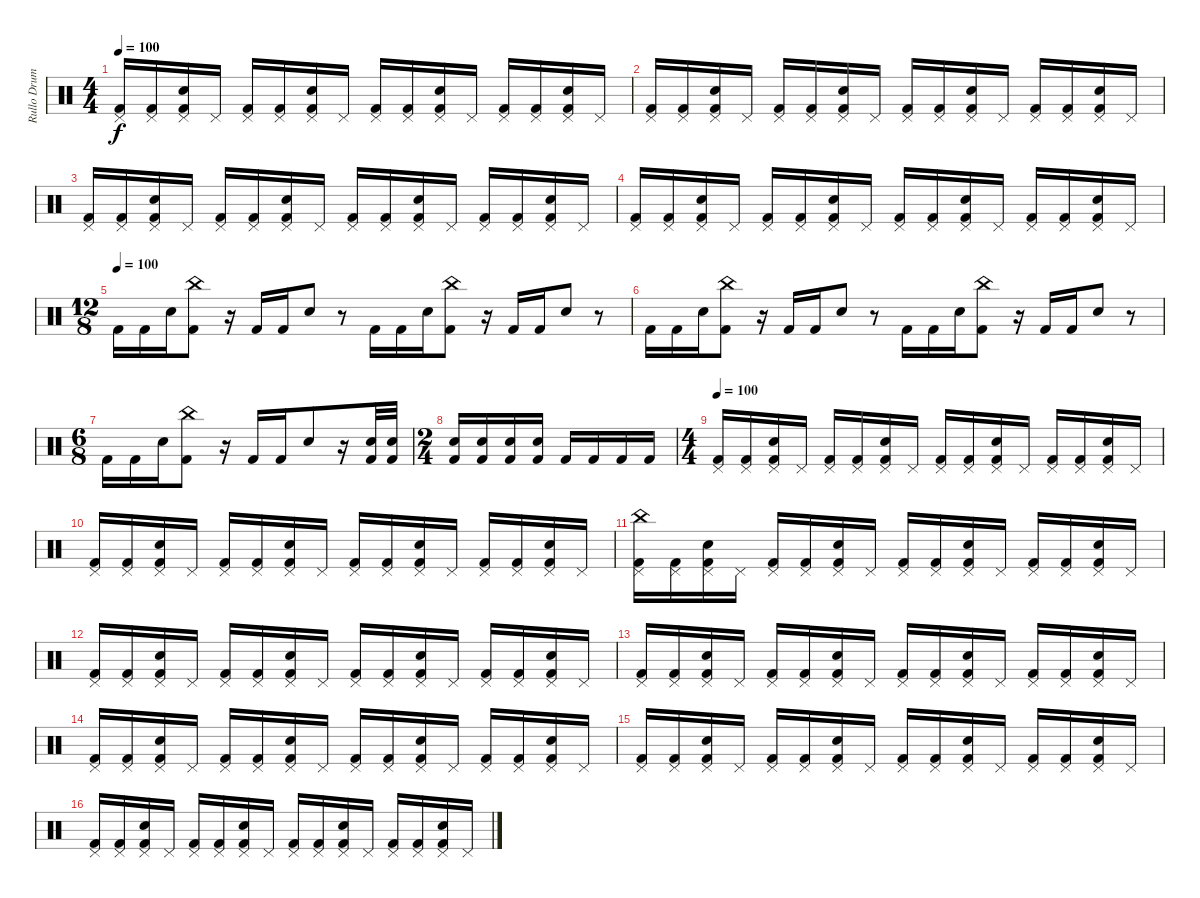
\track ("Rullo Drums" "Rullo Drum") {instrument percussion}
\staff {score}
\articulation defaults
\ts (4 4)
\tempo 100
\clef neutral
\ks c
("Kick (hit) 2" "Pedal Hi-Hat (hit)").16{dy f} ("Kick (hit) 2" "Pedal Hi-Hat (hit)").16 ("Kick (hit) 2" "Snare (hit) 2" "Pedal Hi-Hat (hit)").16 "Pedal Hi-Hat (hit)".16 ("Kick (hit) 2" "Pedal Hi-Hat (hit)").16 ("Kick (hit) 2" "Pedal Hi-Hat (hit)").16 ("Kick (hit) 2" "Snare (hit) 2" "Pedal Hi-Hat (hit)").16 "Pedal Hi-Hat (hit)".16 ("Kick (hit) 2" "Pedal Hi-Hat (hit)").16 ("Kick (hit) 2" "Pedal Hi-Hat (hit)").16 ("Kick (hit) 2" "Snare (hit) 2" "Pedal Hi-Hat (hit)").16 "Pedal Hi-Hat (hit)".16 ("Kick (hit) 2" "Pedal Hi-Hat (hit)").16 ("Kick (hit) 2" "Pedal Hi-Hat (hit)").16 ("Kick (hit) 2" "Snare (hit) 2" "Pedal Hi-Hat (hit)").16 "Pedal Hi-Hat (hit)".16 |
("Kick (hit) 2" "Pedal Hi-Hat (hit)").16 ("Kick (hit) 2" "Pedal Hi-Hat (hit)").16 ("Kick (hit) 2" "Snare (hit) 2" "Pedal Hi-Hat (hit)").16 "Pedal Hi-Hat (hit)".16 ("Kick (hit) 2" "Pedal Hi-Hat (hit)").16 ("Kick (hit) 2" "Pedal Hi-Hat (hit)").16 ("Kick (hit) 2" "Snare (hit) 2" "Pedal Hi-Hat (hit)").16 "Pedal Hi-Hat (hit)".16 ("Kick (hit) 2" "Pedal Hi-Hat (hit)").16 ("Kick (hit) 2" "Pedal Hi-Hat (hit)").16 ("Kick (hit) 2" "Snare (hit) 2" "Pedal Hi-Hat (hit)").16 "Pedal Hi-Hat (hit)".16 ("Kick (hit) 2" "Pedal Hi-Hat (hit)").16 ("Kick (hit) 2" "Pedal Hi-Hat (hit)").16 ("Kick (hit) 2" "Snare (hit) 2" "Pedal Hi-Hat (hit)").16 "Pedal Hi-Hat (hit)".16 |
("Kick (hit) 2" "Pedal Hi-Hat (hit)").16 ("Kick (hit) 2" "Pedal Hi-Hat (hit)").16 ("Kick (hit) 2" "Snare (hit) 2" "Pedal Hi-Hat (hit)").16 "Pedal Hi-Hat (hit)".16 ("Kick (hit) 2" "Pedal Hi-Hat (hit)").16 ("Kick (hit) 2" "Pedal Hi-Hat (hit)").16 ("Kick (hit) 2" "Snare (hit) 2" "Pedal Hi-Hat (hit)").16 "Pedal Hi-Hat (hit)".16 ("Kick (hit) 2" "Pedal Hi-Hat (hit)").16 ("Kick (hit) 2" "Pedal Hi-Hat (hit)").16 ("Kick (hit) 2" "Snare (hit) 2" "Pedal Hi-Hat (hit)").16 "Pedal Hi-Hat (hit)".16 ("Kick (hit) 2" "Pedal Hi-Hat (hit)").16 ("Kick (hit) 2" "Pedal Hi-Hat (hit)").16 ("Kick (hit) 2" "Snare (hit) 2" "Pedal Hi-Hat (hit)").16 "Pedal Hi-Hat (hit)".16 |
("Kick (hit) 2" "Pedal Hi-Hat (hit)").16 ("Kick (hit) 2" "Pedal Hi-Hat (hit)").16 ("Kick (hit) 2" "Snare (hit) 2" "Pedal Hi-Hat (hit)").16 "Pedal Hi-Hat (hit)".16 ("Kick (hit) 2" "Pedal Hi-Hat (hit)").16 ("Kick (hit) 2" "Pedal Hi-Hat (hit)").16 ("Kick (hit) 2" "Snare (hit) 2" "Pedal Hi-Hat (hit)").16 "Pedal Hi-Hat (hit)".16 ("Kick (hit) 2" "Pedal Hi-Hat (hit)").16 ("Kick (hit) 2" "Pedal Hi-Hat (hit)").16 ("Kick (hit) 2" "Snare (hit) 2" "Pedal Hi-Hat (hit)").16 "Pedal Hi-Hat (hit)".16 ("Kick (hit) 2" "Pedal Hi-Hat (hit)").16 ("Kick (hit) 2" "Pedal Hi-Hat (hit)").16 ("Kick (hit) 2" "Snare (hit) 2" "Pedal Hi-Hat (hit)").16 "Pedal Hi-Hat (hit)".16 |
\ts (12 8)
\tempo (100)
"Kick (hit) 2".16 "Kick (hit) 2".16 "Snare (hit) 2".16 ("Kick (hit) 2" "China (hit)").8 r.16 "Kick (hit) 2".16 "Kick (hit) 2".16 "Snare (hit) 2".8 r.8 "Kick (hit) 2".16 "Kick (hit) 2".16 "Snare (hit) 2".16 ("Kick (hit) 2" "China (hit)").8 r.16 "Kick (hit) 2".16 "Kick (hit) 2".16 "Snare (hit) 2".8 r.8 |
"Kick (hit) 2".16 "Kick (hit) 2".16 "Snare (hit) 2".16 ("Kick (hit) 2" "China (hit)").8 r.16 "Kick (hit) 2".16 "Kick (hit) 2".16 "Snare (hit) 2".8 r.8 "Kick (hit) 2".16 "Kick (hit) 2".16 "Snare (hit) 2".16 ("Kick (hit) 2" "China (hit)").8 r.16 "Kick (hit) 2".16 "Kick (hit) 2".16 "Snare (hit) 2".8 r.8 |
\ts (6 8)
"Kick (hit) 2".16 "Kick (hit) 2".16 "Snare (hit) 2".16 ("Kick (hit) 2" "China (hit)").8 r.16 "Kick (hit) 2".16 "Kick (hit) 2".16 "Snare (hit) 2".8 r.16 ("Kick (hit) 2" "Snare (hit) 2").32 ("Kick (hit) 2" "Snare (hit) 2").32 |
\ts (2 4)
("Kick (hit) 2" "Snare (hit) 2").16 ("Kick (hit) 2" "Snare (hit) 2").16 ("Kick (hit) 2" "Snare (hit) 2").16 ("Kick (hit) 2" "Snare (hit) 2").16 "Kick (hit) 2".16 "Kick (hit) 2".16 "Kick (hit) 2".16 "Kick (hit) 2".16 |
\ts (4 4)
\tempo 100
("Kick (hit) 2" "Pedal Hi-Hat (hit)").16 ("Kick (hit) 2" "Pedal Hi-Hat (hit)").16 ("Kick (hit) 2" "Snare (hit) 2" "Pedal Hi-Hat (hit)").16 "Pedal Hi-Hat (hit)".16 ("Kick (hit) 2" "Pedal Hi-Hat (hit)").16 ("Kick (hit) 2" "Pedal Hi-Hat (hit)").16 ("Kick (hit) 2" "Snare (hit) 2" "Pedal Hi-Hat (hit)").16 "Pedal Hi-Hat (hit)".16 ("Kick (hit) 2" "Pedal Hi-Hat (hit)").16 ("Kick (hit) 2" "Pedal Hi-Hat (hit)").16 ("Kick (hit) 2" "Snare (hit) 2" "Pedal Hi-Hat (hit)").16 "Pedal Hi-Hat (hit)".16 ("Kick (hit) 2" "Pedal Hi-Hat (hit)").16 ("Kick (hit) 2" "Pedal Hi-Hat (hit)").16 ("Kick (hit) 2" "Snare (hit) 2" "Pedal Hi-Hat (hit)").16 "Pedal Hi-Hat (hit)".16 |
("Kick (hit) 2" "Pedal Hi-Hat (hit)").16 ("Kick (hit) 2" "Pedal Hi-Hat (hit)").16 ("Kick (hit) 2" "Snare (hit) 2" "Pedal Hi-Hat (hit)").16 "Pedal Hi-Hat (hit)".16 ("Kick (hit) 2" "Pedal Hi-Hat (hit)").16 ("Kick (hit) 2" "Pedal Hi-Hat (hit)").16 ("Kick (hit) 2" "Snare (hit) 2" "Pedal Hi-Hat (hit)").16 "Pedal Hi-Hat (hit)".16 ("Kick (hit) 2" "Pedal Hi-Hat (hit)").16 ("Kick (hit) 2" "Pedal Hi-Hat (hit)").16 ("Kick (hit) 2" "Snare (hit) 2" "Pedal Hi-Hat (hit)").16 "Pedal Hi-Hat (hit)".16 ("Kick (hit) 2" "Pedal Hi-Hat (hit)").16 ("Kick (hit) 2" "Pedal Hi-Hat (hit)").16 ("Kick (hit) 2" "Snare (hit) 2" "Pedal Hi-Hat (hit)").16 "Pedal Hi-Hat (hit)".16 |
("Kick (hit) 2" "Pedal Hi-Hat (hit)" "China (hit)").16 ("Kick (hit) 2" "Pedal Hi-Hat (hit)").16 ("Kick (hit) 2" "Snare (hit) 2" "Pedal Hi-Hat (hit)").16 "Pedal Hi-Hat (hit)".16 ("Kick (hit) 2" "Pedal Hi-Hat (hit)").16 ("Kick (hit) 2" "Pedal Hi-Hat (hit)").16 ("Kick (hit) 2" "Snare (hit) 2" "Pedal Hi-Hat (hit)").16 "Pedal Hi-Hat (hit)".16 ("Kick (hit) 2" "Pedal Hi-Hat (hit)").16 ("Kick (hit) 2" "Pedal Hi-Hat (hit)").16 ("Kick (hit) 2" "Snare (hit) 2" "Pedal Hi-Hat (hit)").16 "Pedal Hi-Hat (hit)".16 ("Kick (hit) 2" "Pedal Hi-Hat (hit)").16 ("Kick (hit) 2" "Pedal Hi-Hat (hit)").16 ("Kick (hit) 2" "Snare (hit) 2" "Pedal Hi-Hat (hit)").16 "Pedal Hi-Hat (hit)".16 |
("Kick (hit) 2" "Pedal Hi-Hat (hit)").16 ("Kick (hit) 2" "Pedal Hi-Hat (hit)").16 ("Kick (hit) 2" "Snare (hit) 2" "Pedal Hi-Hat (hit)").16 "Pedal Hi-Hat (hit)".16 ("Kick (hit) 2" "Pedal Hi-Hat (hit)").16 ("Kick (hit) 2" "Pedal Hi-Hat (hit)").16 ("Kick (hit) 2" "Snare (hit) 2" "Pedal Hi-Hat (hit)").16 "Pedal Hi-Hat (hit)".16 ("Kick (hit) 2" "Pedal Hi-Hat (hit)").16 ("Kick (hit) 2" "Pedal Hi-Hat (hit)").16 ("Kick (hit) 2" "Snare (hit) 2" "Pedal Hi-Hat (hit)").16 "Pedal Hi-Hat (hit)".16 ("Kick (hit) 2" "Pedal Hi-Hat (hit)").16 ("Kick (hit) 2" "Pedal Hi-Hat (hit)").16 ("Kick (hit) 2" "Snare (hit) 2" "Pedal Hi-Hat (hit)").16 "Pedal Hi-Hat (hit)".16 |
("Kick (hit) 2" "Pedal Hi-Hat (hit)").16 ("Kick (hit) 2" "Pedal Hi-Hat (hit)").16 ("Kick (hit) 2" "Snare (hit) 2" "Pedal Hi-Hat (hit)").16 "Pedal Hi-Hat (hit)".16 ("Kick (hit) 2" "Pedal Hi-Hat (hit)").16 ("Kick (hit) 2" "Pedal Hi-Hat (hit)").16 ("Kick (hit) 2" "Snare (hit) 2" "Pedal Hi-Hat (hit)").16 "Pedal Hi-Hat (hit)".16 ("Kick (hit) 2" "Pedal Hi-Hat (hit)").16 ("Kick (hit) 2" "Pedal Hi-Hat (hit)").16 ("Kick (hit) 2" "Snare (hit) 2" "Pedal Hi-Hat (hit)").16 "Pedal Hi-Hat (hit)".16 ("Kick (hit) 2" "Pedal Hi-Hat (hit)").16 ("Kick (hit) 2" "Pedal Hi-Hat (hit)").16 ("Kick (hit) 2" "Snare (hit) 2" "Pedal Hi-Hat (hit)").16 "Pedal Hi-Hat (hit)".16 |
("Kick (hit) 2" "Pedal Hi-Hat (hit)").16 ("Kick (hit) 2" "Pedal Hi-Hat (hit)").16 ("Kick (hit) 2" "Snare (hit) 2" "Pedal Hi-Hat (hit)").16 "Pedal Hi-Hat (hit)".16 ("Kick (hit) 2" "Pedal Hi-Hat (hit)").16 ("Kick (hit) 2" "Pedal Hi-Hat (hit)").16 ("Kick (hit) 2" "Snare (hit) 2" "Pedal Hi-Hat (hit)").16 "Pedal Hi-Hat (hit)".16 ("Kick (hit) 2" "Pedal Hi-Hat (hit)").16 ("Kick (hit) 2" "Pedal Hi-Hat (hit)").16 ("Kick (hit) 2" "Snare (hit) 2" "Pedal Hi-Hat (hit)").16 "Pedal Hi-Hat (hit)".16 ("Kick (hit) 2" "Pedal Hi-Hat (hit)").16 ("Kick (hit) 2" "Pedal Hi-Hat (hit)").16 ("Kick (hit) 2" "Snare (hit) 2" "Pedal Hi-Hat (hit)").16 "Pedal Hi-Hat (hit)".16 |
("Kick (hit) 2" "Pedal Hi-Hat (hit)").16 ("Kick (hit) 2" "Pedal Hi-Hat (hit)").16 ("Kick (hit) 2" "Snare (hit) 2" "Pedal Hi-Hat (hit)").16 "Pedal Hi-Hat (hit)".16 ("Kick (hit) 2" "Pedal Hi-Hat (hit)").16 ("Kick (hit) 2" "Pedal Hi-Hat (hit)").16 ("Kick (hit) 2" "Snare (hit) 2" "Pedal Hi-Hat (hit)").16 "Pedal Hi-Hat (hit)".16 ("Kick (hit) 2" "Pedal Hi-Hat (hit)").16 ("Kick (hit) 2" "Pedal Hi-Hat (hit)").16 ("Kick (hit) 2" "Snare (hit) 2" "Pedal Hi-Hat (hit)").16 "Pedal Hi-Hat (hit)".16 ("Kick (hit) 2" "Pedal Hi-Hat (hit)").16 ("Kick (hit) 2" "Pedal Hi-Hat (hit)").16 ("Kick (hit) 2" "Snare (hit) 2" "Pedal Hi-Hat (hit)").16 "Pedal Hi-Hat (hit)".16 |
("Kick (hit) 2" "Pedal Hi-Hat (hit)").16 ("Kick (hit) 2" "Pedal Hi-Hat (hit)").16 ("Kick (hit) 2" "Snare (hit) 2" "Pedal Hi-Hat (hit)").16 "Pedal Hi-Hat (hit)".16 ("Kick (hit) 2" "Pedal Hi-Hat (hit)").16 ("Kick (hit) 2" "Pedal Hi-Hat (hit)").16 ("Kick (hit) 2" "Snare (hit) 2" "Pedal Hi-Hat (hit)").16 "Pedal Hi-Hat (hit)".16 ("Kick (hit) 2" "Pedal Hi-Hat (hit)").16 ("Kick (hit) 2" "Pedal Hi-Hat (hit)").16 ("Kick (hit) 2" "Snare (hit) 2" "Pedal Hi-Hat (hit)").16 "Pedal Hi-Hat (hit)".16 ("Kick (hit) 2" "Pedal Hi-Hat (hit)").16 ("Kick (hit) 2" "Pedal Hi-Hat (hit)").16 ("Kick (hit) 2" "Snare (hit) 2" "Pedal Hi-Hat (hit)").16 "Pedal Hi-Hat (hit)".16
